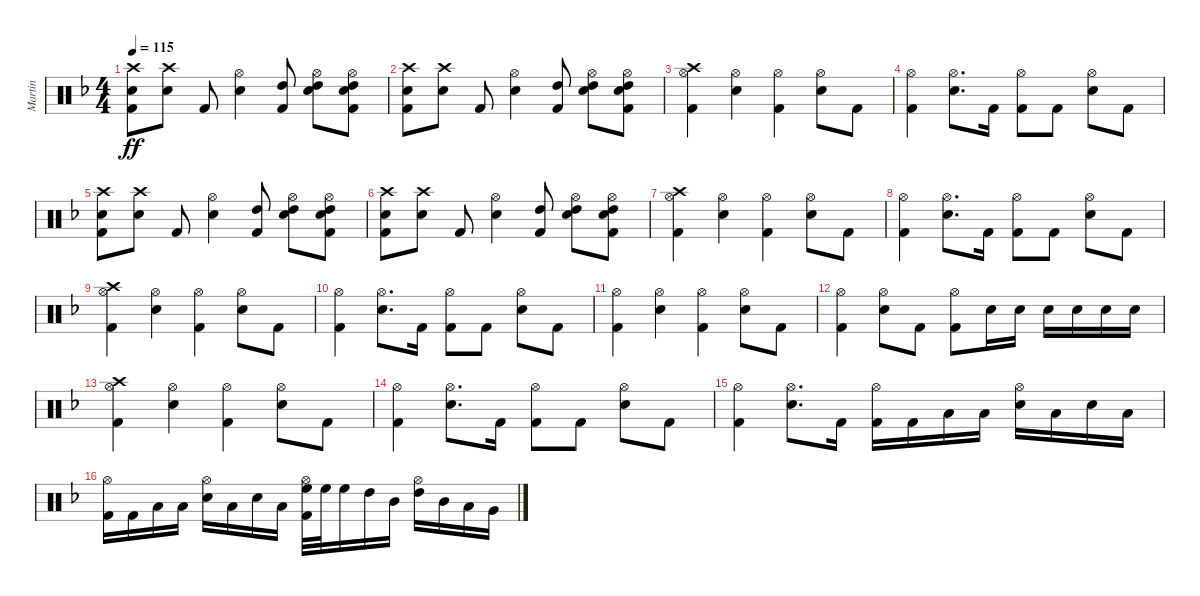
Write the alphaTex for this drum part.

\track ("Martin" "Martin") {instrument percussion}
\staff {score}
\articulation defaults
\ts (4 4)
\tempo 115
\clef neutral
\ks dminor
("Crash high (hit)" "Electric Snare (hit)" "Kick (hit) 2").8{dy ff} ("Crash high (hit)" "Electric Snare (hit)").8 "Kick (hit) 2".8 ("Hi-Hat (open)" "Electric Snare (hit)").4 ("High Tom (hit)" "Kick (hit) 2").8 ("Hi-Hat (open)" "Electric Snare (hit)" "High Tom (hit)").8 ("Hi-Hat (open)" "Electric Snare (hit)" "High Tom (hit)" "Kick (hit) 2").8 |
("Crash high (hit)" "Electric Snare (hit)" "Kick (hit) 2").8 ("Crash high (hit)" "Electric Snare (hit)").8 "Kick (hit) 2".8 ("Hi-Hat (open)" "Electric Snare (hit)").4 ("High Tom (hit)" "Kick (hit) 2").8 ("Hi-Hat (open)" "Electric Snare (hit)" "High Tom (hit)").8 ("Hi-Hat (open)" "Electric Snare (hit)" "High Tom (hit)" "Kick (hit) 2").8 |
("Crash high (hit)" "Hi-Hat (open)" "Kick (hit) 2").4 ("Hi-Hat (open)" "Electric Snare (hit)").4 ("Hi-Hat (open)" "Kick (hit) 2").4 ("Hi-Hat (open)" "Electric Snare (hit)").8 "Kick (hit) 2".8 |
("Hi-Hat (open)" "Kick (hit) 2").4 ("Hi-Hat (open)" "Electric Snare (hit)").8{d} "Kick (hit) 2".16 ("Hi-Hat (open)" "Kick (hit) 2").8 "Kick (hit) 2".8 ("Hi-Hat (open)" "Electric Snare (hit)").8 "Kick (hit) 2".8 |
("Crash high (hit)" "Electric Snare (hit)" "Kick (hit) 2").8 ("Crash high (hit)" "Electric Snare (hit)").8 "Kick (hit) 2".8 ("Hi-Hat (open)" "Electric Snare (hit)").4 ("High Tom (hit)" "Kick (hit) 2").8 ("Hi-Hat (open)" "Electric Snare (hit)" "High Tom (hit)").8 ("Hi-Hat (open)" "Electric Snare (hit)" "High Tom (hit)" "Kick (hit) 2").8 |
("Crash high (hit)" "Electric Snare (hit)" "Kick (hit) 2").8 ("Crash high (hit)" "Electric Snare (hit)").8 "Kick (hit) 2".8 ("Hi-Hat (open)" "Electric Snare (hit)").4 ("High Tom (hit)" "Kick (hit) 2").8 ("Hi-Hat (open)" "Electric Snare (hit)" "High Tom (hit)").8 ("Hi-Hat (open)" "Electric Snare (hit)" "High Tom (hit)" "Kick (hit) 2").8 |
("Crash high (hit)" "Hi-Hat (open)" "Kick (hit) 2").4 ("Hi-Hat (open)" "Electric Snare (hit)").4 ("Hi-Hat (open)" "Kick (hit) 2").4 ("Hi-Hat (open)" "Electric Snare (hit)").8 "Kick (hit) 2".8 |
("Hi-Hat (open)" "Kick (hit) 2").4 ("Hi-Hat (open)" "Electric Snare (hit)").8{d} "Kick (hit) 2".16 ("Hi-Hat (open)" "Kick (hit) 2").8 "Kick (hit) 2".8 ("Hi-Hat (open)" "Electric Snare (hit)").8 "Kick (hit) 2".8 |
("Crash high (hit)" "Hi-Hat (open)" "Kick (hit) 2").4 ("Hi-Hat (open)" "Electric Snare (hit)").4 ("Hi-Hat (open)" "Kick (hit) 2").4 ("Hi-Hat (open)" "Electric Snare (hit)").8 "Kick (hit) 2".8 |
("Hi-Hat (open)" "Kick (hit) 2").4 ("Hi-Hat (open)" "Electric Snare (hit)").8{d} "Kick (hit) 2".16 ("Hi-Hat (open)" "Kick (hit) 2").8 "Kick (hit) 2".8 ("Hi-Hat (open)" "Electric Snare (hit)").8 "Kick (hit) 2".8 |
("Hi-Hat (open)" "Kick (hit) 2").4 ("Hi-Hat (open)" "Electric Snare (hit)").4 ("Hi-Hat (open)" "Kick (hit) 2").4 ("Hi-Hat (open)" "Electric Snare (hit)").8 "Kick (hit) 2".8 |
("Hi-Hat (open)" "Kick (hit) 2").4 ("Hi-Hat (open)" "Electric Snare (hit)").8 "Kick (hit) 2".8 ("Hi-Hat (open)" "Kick (hit) 2").8 "Electric Snare (hit)".16 "Electric Snare (hit)".16 "Electric Snare (hit)".16 "Electric Snare (hit)".16 "Electric Snare (hit)".16 "Electric Snare (hit)".16 |
("Crash high (hit)" "Hi-Hat (open)" "Kick (hit) 2").4 ("Hi-Hat (open)" "Electric Snare (hit)").4 ("Hi-Hat (open)" "Kick (hit) 2").4 ("Hi-Hat (open)" "Electric Snare (hit)").8 "Kick (hit) 2".8 |
("Hi-Hat (open)" "Kick (hit) 2").4 ("Hi-Hat (open)" "Electric Snare (hit)").8{d} "Kick (hit) 2".16 ("Hi-Hat (open)" "Kick (hit) 2").8 "Kick (hit) 2".8 ("Hi-Hat (open)" "Electric Snare (hit)").8 "Kick (hit) 2".8 |
("Hi-Hat (open)" "Kick (hit) 2").4 ("Hi-Hat (open)" "Electric Snare (hit)").8{d} "Kick (hit) 2".16 ("Hi-Hat (open)" "Kick (hit) 2").16 "Kick (hit) 2".16 "Low Tom (hit)".16 "Low Tom (hit)".16 ("Hi-Hat (open)" "Electric Snare (hit)").16 "Low Tom (hit)".16 "Electric Snare (hit)".16 "Low Tom (hit)".16 |
("Hi-Hat (open)" "Kick (hit) 2").16 "Kick (hit) 2".16 "Low Tom (hit)".16 "Low Tom (hit)".16 ("Hi-Hat (open)" "Electric Snare (hit)").16 "Low Tom (hit)".16 "Electric Snare (hit)".16 "Low Tom (hit)".16 ("Hi-Hat (open)" "High Floor Tom (hit)" "Kick (hit) 2").32 "High Floor Tom (hit)".32 "High Floor Tom (hit)".16 "High Tom (hit)".16 "Mid Tom (hit)".16 ("Hi-Hat (open)" "High Tom (hit)").16 "Mid Tom (hit)".16 "Low Tom (hit)".16 "Very Low Tom (hit)".16
